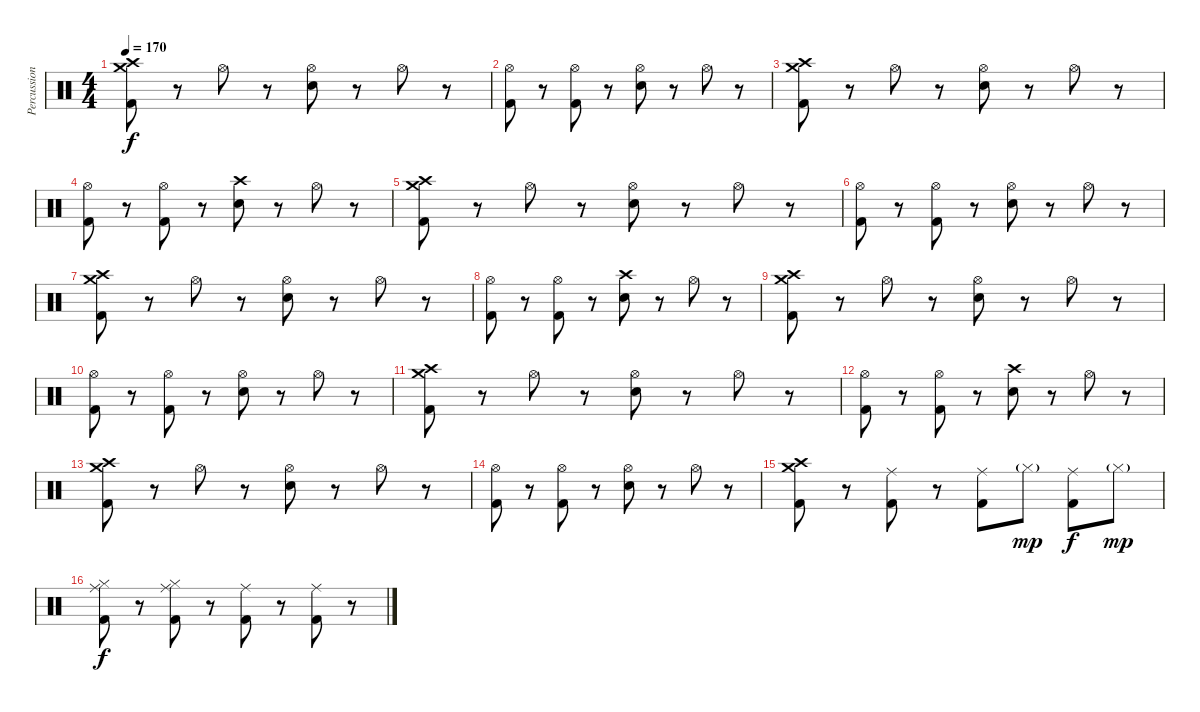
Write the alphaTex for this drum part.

\track ("Percussion" "Percussion") {instrument percussion}
\staff {score}
\articulation defaults
\ts (4 4)
\tempo 170
\clef neutral
\ks c
("Crash high (hit)" "Crash medium (hit)" "Kick (hit) 2").8{dy f} r.8 "Hi-Hat (open)".8 r.8 ("Hi-Hat (open)" "Electric Snare (hit)").8 r.8 "Hi-Hat (open)".8 r.8 |
("Hi-Hat (open)" "Kick (hit) 2").8 r.8 ("Hi-Hat (open)" "Kick (hit) 2").8 r.8 ("Hi-Hat (open)" "Electric Snare (hit)").8 r.8 "Hi-Hat (open)".8 r.8 |
("Crash high (hit)" "Crash medium (hit)" "Kick (hit) 2").8 r.8 "Hi-Hat (open)".8 r.8 ("Hi-Hat (open)" "Electric Snare (hit)").8 r.8 "Hi-Hat (open)".8 r.8 |
("Hi-Hat (open)" "Kick (hit) 2").8 r.8 ("Hi-Hat (open)" "Kick (hit) 2").8 r.8 ("Crash high (hit)" "Electric Snare (hit)").8 r.8 "Hi-Hat (open)".8 r.8 |
("Crash high (hit)" "Crash medium (hit)" "Kick (hit) 2").8 r.8 "Hi-Hat (open)".8 r.8 ("Hi-Hat (open)" "Electric Snare (hit)").8 r.8 "Hi-Hat (open)".8 r.8 |
("Hi-Hat (open)" "Kick (hit) 2").8 r.8 ("Hi-Hat (open)" "Kick (hit) 2").8 r.8 ("Hi-Hat (open)" "Electric Snare (hit)").8 r.8 "Hi-Hat (open)".8 r.8 |
("Crash high (hit)" "Crash medium (hit)" "Kick (hit) 2").8 r.8 "Hi-Hat (open)".8 r.8 ("Hi-Hat (open)" "Electric Snare (hit)").8 r.8 "Hi-Hat (open)".8 r.8 |
("Hi-Hat (open)" "Kick (hit) 2").8 r.8 ("Hi-Hat (open)" "Kick (hit) 2").8 r.8 ("Crash high (hit)" "Electric Snare (hit)").8 r.8 "Hi-Hat (open)".8 r.8 |
("Crash high (hit)" "Crash medium (hit)" "Kick (hit) 2").8 r.8 "Hi-Hat (open)".8 r.8 ("Hi-Hat (open)" "Electric Snare (hit)").8 r.8 "Hi-Hat (open)".8 r.8 |
("Hi-Hat (open)" "Kick (hit) 2").8 r.8 ("Hi-Hat (open)" "Kick (hit) 2").8 r.8 ("Hi-Hat (open)" "Electric Snare (hit)").8 r.8 "Hi-Hat (open)".8 r.8 |
("Crash high (hit)" "Crash medium (hit)" "Kick (hit) 2").8 r.8 "Hi-Hat (open)".8 r.8 ("Hi-Hat (open)" "Electric Snare (hit)").8 r.8 "Hi-Hat (open)".8 r.8 |
("Hi-Hat (open)" "Kick (hit) 2").8 r.8 ("Hi-Hat (open)" "Kick (hit) 2").8 r.8 ("Crash high (hit)" "Electric Snare (hit)").8 r.8 "Hi-Hat (open)".8 r.8 |
("Crash high (hit)" "Crash medium (hit)" "Kick (hit) 2").8 r.8 "Hi-Hat (open)".8 r.8 ("Hi-Hat (open)" "Electric Snare (hit)").8 r.8 "Hi-Hat (open)".8 r.8 |
("Hi-Hat (open)" "Kick (hit) 2").8 r.8 ("Hi-Hat (open)" "Kick (hit) 2").8 r.8 ("Hi-Hat (open)" "Electric Snare (hit)").8 r.8 "Hi-Hat (open)".8 r.8 |
("Crash high (hit)" "Crash medium (hit)" "Kick (hit) 2").8 r.8 ("Ride (middle)" "Kick (hit) 2").8 r.8 ("Ride (middle)" "Kick (hit) 2").8 "Hi-Hat (closed)"{g}.8{dy mp} ("Ride (middle)" "Kick (hit) 2").8{dy f} "Hi-Hat (closed)"{g}.8{dy mp} |
("Hi-Hat (closed)" "Ride (middle)" "Kick (hit) 2").8{dy f} r.8 ("Hi-Hat (closed)" "Ride (middle)" "Kick (hit) 2").8 r.8 ("Ride (middle)" "Kick (hit) 2").8 r.8 ("Ride (middle)" "Kick (hit) 2").8 r.8
